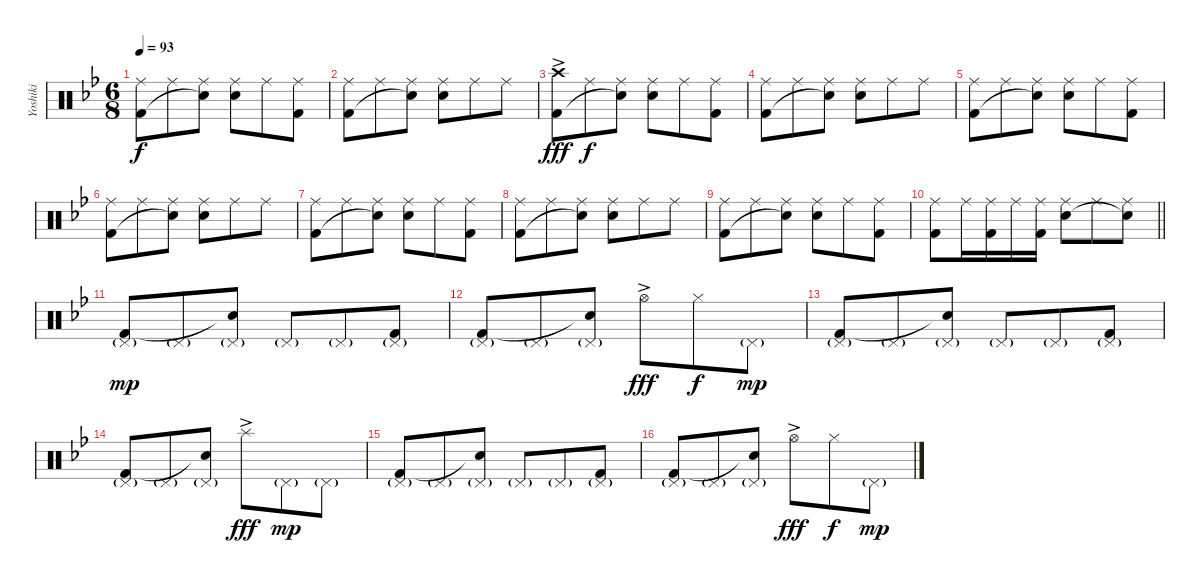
\track ("Yoshiki" "Yoshiki") {instrument percussion}
\staff {score}
\articulation defaults
\ts (6 8)
\tempo 93
\clef neutral
\ks bb
("Ride (middle)" "Kick (hit) 2").8{dy f} "Ride (middle)".8 ("Ride (middle)" "Snare (hit)"{t}).8 ("Ride (middle)" "Snare (hit) 2").8 "Ride (middle)".8 ("Ride (middle)" "Kick (hit) 2").8 |
("Ride (middle)" "Kick (hit) 2").8 "Ride (middle)".8 ("Ride (middle)" "Snare (hit)"{t}).8 ("Ride (middle)" "Snare (hit) 2").8 "Ride (middle)".8 "Ride (middle)".8 |
("Crash high (hit)"{ac} "Kick (hit) 2"{ac}).8{dy fff} "Ride (middle)".8{dy f} ("Ride (middle)" "Snare (hit)"{t}).8 ("Ride (middle)" "Snare (hit) 2").8 "Ride (middle)".8 ("Ride (middle)" "Kick (hit) 2").8 |
("Ride (middle)" "Kick (hit) 2").8 "Ride (middle)".8 ("Ride (middle)" "Snare (hit)"{t}).8 ("Ride (middle)" "Snare (hit) 2").8 "Ride (middle)".8 "Ride (middle)".8 |
("Ride (middle)" "Kick (hit) 2").8 "Ride (middle)".8 ("Ride (middle)" "Snare (hit)"{t}).8 ("Ride (middle)" "Snare (hit) 2").8 "Ride (middle)".8 ("Ride (middle)" "Kick (hit) 2").8 |
("Ride (middle)" "Kick (hit) 2").8 "Ride (middle)".8 ("Ride (middle)" "Snare (hit)"{t}).8 ("Ride (middle)" "Snare (hit) 2").8 "Ride (middle)".8 "Ride (middle)".8 |
("Ride (middle)" "Kick (hit) 2").8 "Ride (middle)".8 ("Ride (middle)" "Snare (hit)"{t}).8 ("Ride (middle)" "Snare (hit) 2").8 "Ride (middle)".8 ("Ride (middle)" "Kick (hit) 2").8 |
("Ride (middle)" "Kick (hit) 2").8 "Ride (middle)".8 ("Ride (middle)" "Snare (hit)"{t}).8 ("Ride (middle)" "Snare (hit) 2").8 "Ride (middle)".8 "Ride (middle)".8 |
("Ride (middle)" "Kick (hit) 2").8 "Ride (middle)".8 ("Ride (middle)" "Snare (hit)"{t}).8 ("Ride (middle)" "Snare (hit) 2").8 "Ride (middle)".8 ("Ride (middle)" "Kick (hit) 2").8 |
\barLineRight lightlight
("Ride (middle)" "Kick (hit) 2").8 "Ride (middle)".16 ("Ride (middle)" "Kick (hit) 2").16 "Ride (middle)".16 ("Ride (middle)" "Kick (hit) 2").16 ("Ride (middle)" "Snare (hit) 2").8 "Ride (middle)".8 ("Ride (middle)" "Snare (hit)"{t}).8 |
("Pedal Hi-Hat (hit)"{g} "Kick (hit) 2").8{dy mp} "Pedal Hi-Hat (hit)"{g}.8 ("Pedal Hi-Hat (hit)"{g} "Snare (hit)"{t}).8 "Pedal Hi-Hat (hit)"{g}.8 "Pedal Hi-Hat (hit)"{g}.8 ("Pedal Hi-Hat (hit)"{g} "Kick (hit) 2").8 |
("Pedal Hi-Hat (hit)"{g} "Kick (hit) 2").8 "Pedal Hi-Hat (hit)"{g}.8 ("Pedal Hi-Hat (hit)"{g} "Snare (hit)"{t}).8 "Hi-Hat (open)"{ac}.8{dy fff} "Hi-Hat (closed)".8{dy f} "Pedal Hi-Hat (hit)"{g}.8{dy mp} |
("Pedal Hi-Hat (hit)"{g} "Kick (hit) 2").8 "Pedal Hi-Hat (hit)"{g}.8 ("Pedal Hi-Hat (hit)"{g} "Snare (hit)"{t}).8 "Pedal Hi-Hat (hit)"{g}.8 "Pedal Hi-Hat (hit)"{g}.8 ("Pedal Hi-Hat (hit)"{g} "Kick (hit) 2").8 |
("Pedal Hi-Hat (hit)"{g} "Kick (hit) 2").8 "Pedal Hi-Hat (hit)"{g}.8 ("Pedal Hi-Hat (hit)"{g} "Snare (hit)"{t}).8 "Splash (hit)"{ac}.8{dy fff} "Pedal Hi-Hat (hit)"{g}.8{dy mp} "Pedal Hi-Hat (hit)"{g}.8 |
("Pedal Hi-Hat (hit)"{g} "Kick (hit) 2").8 "Pedal Hi-Hat (hit)"{g}.8 ("Pedal Hi-Hat (hit)"{g} "Snare (hit)"{t}).8 "Pedal Hi-Hat (hit)"{g}.8 "Pedal Hi-Hat (hit)"{g}.8 ("Pedal Hi-Hat (hit)"{g} "Kick (hit) 2").8 |
("Pedal Hi-Hat (hit)"{g} "Kick (hit) 2").8 "Pedal Hi-Hat (hit)"{g}.8 ("Pedal Hi-Hat (hit)"{g} "Snare (hit)"{t}).8 "Hi-Hat (open)"{ac}.8{dy fff} "Hi-Hat (closed)".8{dy f} "Pedal Hi-Hat (hit)"{g}.8{dy mp}
